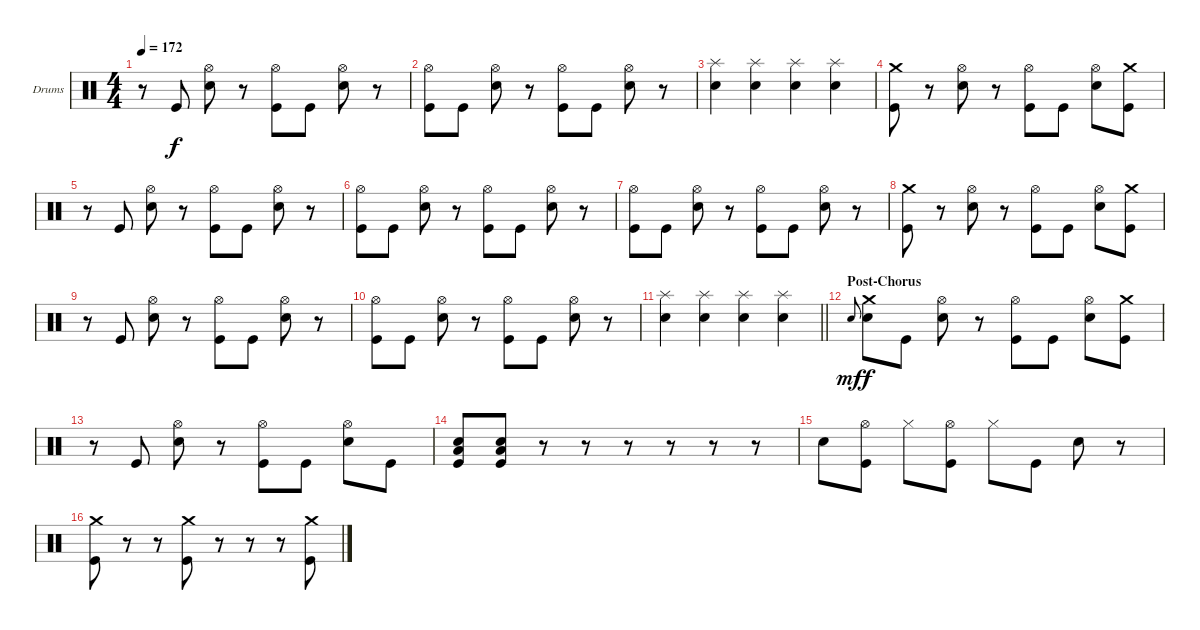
\bracketExtendMode groupsimilarinstruments
\firstSystemTrackNameOrientation horizontal
\otherSystemsTrackNameOrientation horizontal
\track ("Drumkit" "Drums") {instrument percussion}
\staff {score}
\articulation defaults
\ts (4 4)
\tempo 172
\clef neutral
\ks c
r.8{dy f} "Kick (hit)".8 ("Hi-Hat (open)" "Snare (hit) 2").8 r.8 ("Hi-Hat (open)" "Kick (hit)").8 "Kick (hit)".8 ("Hi-Hat (open)" "Snare (hit) 2").8 r.8 |
("Hi-Hat (open)" "Kick (hit)").8 "Kick (hit)".8 ("Hi-Hat (open)" "Snare (hit) 2").8 r.8 ("Hi-Hat (open)" "Kick (hit)").8 "Kick (hit)".8 ("Hi-Hat (open)" "Snare (hit) 2").8 r.8 |
("Splash (hit)" "Snare (hit) 2").4 ("Splash (hit)" "Snare (hit) 2").4 ("Splash (hit)" "Snare (hit) 2").4 ("Splash (hit)" "Snare (hit) 2").4 |
("Crash medium (hit)" "Kick (hit)").8 r.8 ("Hi-Hat (open)" "Snare (hit) 2").8 r.8 ("Hi-Hat (open)" "Kick (hit)").8 "Kick (hit)".8 ("Hi-Hat (open)" "Snare (hit) 2").8 ("Crash medium (hit)" "Kick (hit)").8 |
r.8 "Kick (hit)".8 ("Hi-Hat (open)" "Snare (hit) 2").8 r.8 ("Hi-Hat (open)" "Kick (hit)").8 "Kick (hit)".8 ("Hi-Hat (open)" "Snare (hit) 2").8 r.8 |
("Hi-Hat (open)" "Kick (hit)").8 "Kick (hit)".8 ("Hi-Hat (open)" "Snare (hit) 2").8 r.8 ("Hi-Hat (open)" "Kick (hit)").8 "Kick (hit)".8 ("Hi-Hat (open)" "Snare (hit) 2").8 r.8 |
("Hi-Hat (open)" "Kick (hit)").8 "Kick (hit)".8 ("Hi-Hat (open)" "Snare (hit) 2").8 r.8 ("Hi-Hat (open)" "Kick (hit)").8 "Kick (hit)".8 ("Hi-Hat (open)" "Snare (hit) 2").8 r.8 |
("Crash medium (hit)" "Kick (hit)").8 r.8 ("Hi-Hat (open)" "Snare (hit) 2").8 r.8 ("Hi-Hat (open)" "Kick (hit)").8 "Kick (hit)".8 ("Hi-Hat (open)" "Snare (hit) 2").8 ("Crash medium (hit)" "Kick (hit)").8 |
r.8 "Kick (hit)".8 ("Hi-Hat (open)" "Snare (hit) 2").8 r.8 ("Hi-Hat (open)" "Kick (hit)").8 "Kick (hit)".8 ("Hi-Hat (open)" "Snare (hit) 2").8 r.8 |
("Hi-Hat (open)" "Kick (hit)").8 "Kick (hit)".8 ("Hi-Hat (open)" "Snare (hit) 2").8 r.8 ("Hi-Hat (open)" "Kick (hit)").8 "Kick (hit)".8 ("Hi-Hat (open)" "Snare (hit) 2").8 r.8 |
\barLineRight lightlight
("Splash (hit)" "Snare (hit) 2").4 ("Splash (hit)" "Snare (hit) 2").4 ("Splash (hit)" "Snare (hit) 2").4 ("Splash (hit)" "Snare (hit) 2").4 |
\section ("" "Post-Chorus")
"Snare (hit) 2".8{gr onbeat dy mf} ("Crash medium (hit)" "Snare (hit) 2").8{dy f} "Kick (hit)".8 ("Hi-Hat (open)" "Snare (hit) 2").8 r.8 ("Hi-Hat (open)" "Kick (hit)").8 "Kick (hit)".8 ("Hi-Hat (open)" "Snare (hit) 2").8 ("Crash medium (hit)" "Kick (hit)").8 |
r.8 "Kick (hit)".8 ("Hi-Hat (open)" "Snare (hit) 2").8 r.8 ("Hi-Hat (open)" "Kick (hit)").8 "Kick (hit)".8 ("Hi-Hat (open)" "Snare (hit) 2").8 "Kick (hit)".8 |
("Snare (hit) 2" "Low Tom (hit)" "Kick (hit)").8 ("Snare (hit) 2" "Low Tom (hit)" "Kick (hit)").8 r.8 r.8 r.8 r.8 r.8 r.8 |
"Snare (hit) 2".8 ("Hi-Hat (open)" "Kick (hit)").8 "Hi-Hat (closed)".8 ("Hi-Hat (open)" "Kick (hit)").8 "Hi-Hat (closed)".8 "Kick (hit)".8 "Snare (hit) 2".8 r.8 |
("Crash medium (hit)" "Kick (hit)").8 r.8 r.8 ("Crash medium (hit)" "Kick (hit)").8 r.8 r.8 r.8 ("Crash medium (hit)" "Kick (hit)").8
